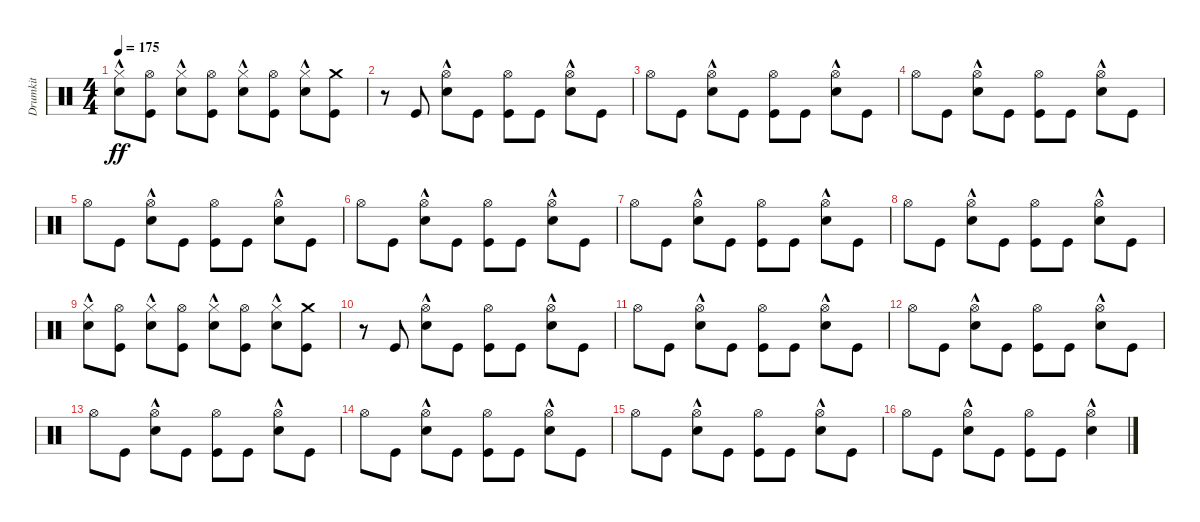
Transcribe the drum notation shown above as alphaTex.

\track ("Drumkit" "Drumkit") {instrument percussion}
\staff {score}
\articulation defaults
\ts (4 4)
\tempo 175
\clef neutral
\ks c
("Snare (hit) 2"{hac} "Hi-Hat (closed)").8{dy ff} ("Kick (hit)" "Hi-Hat (open)").8 ("Snare (hit) 2"{hac} "Hi-Hat (closed)").8 ("Kick (hit)" "Hi-Hat (open)").8 ("Snare (hit) 2"{hac} "Hi-Hat (closed)").8 ("Kick (hit)" "Hi-Hat (open)").8 ("Snare (hit) 2"{hac} "Hi-Hat (closed)").8 ("Kick (hit)" "Crash medium (hit)").8 |
r.8 "Kick (hit)".8 ("Snare (hit) 2"{hac} "Hi-Hat (open)").8 "Kick (hit)".8 ("Kick (hit)" "Hi-Hat (open)").8 "Kick (hit)".8 ("Snare (hit) 2"{hac} "Hi-Hat (open)").8 "Kick (hit)".8 |
"Hi-Hat (open)".8 "Kick (hit)".8 ("Snare (hit) 2"{hac} "Hi-Hat (open)").8 "Kick (hit)".8 ("Kick (hit)" "Hi-Hat (open)").8 "Kick (hit)".8 ("Snare (hit) 2"{hac} "Hi-Hat (open)").8 "Kick (hit)".8 |
"Hi-Hat (open)".8 "Kick (hit)".8 ("Snare (hit) 2"{hac} "Hi-Hat (open)").8 "Kick (hit)".8 ("Kick (hit)" "Hi-Hat (open)").8 "Kick (hit)".8 ("Snare (hit) 2"{hac} "Hi-Hat (open)").8 "Kick (hit)".8 |
"Hi-Hat (open)".8 "Kick (hit)".8 ("Snare (hit) 2"{hac} "Hi-Hat (open)").8 "Kick (hit)".8 ("Kick (hit)" "Hi-Hat (open)").8 "Kick (hit)".8 ("Snare (hit) 2"{hac} "Hi-Hat (open)").8 "Kick (hit)".8 |
"Hi-Hat (open)".8 "Kick (hit)".8 ("Snare (hit) 2"{hac} "Hi-Hat (open)").8 "Kick (hit)".8 ("Kick (hit)" "Hi-Hat (open)").8 "Kick (hit)".8 ("Snare (hit) 2"{hac} "Hi-Hat (open)").8 "Kick (hit)".8 |
"Hi-Hat (open)".8 "Kick (hit)".8 ("Snare (hit) 2"{hac} "Hi-Hat (open)").8 "Kick (hit)".8 ("Kick (hit)" "Hi-Hat (open)").8 "Kick (hit)".8 ("Snare (hit) 2"{hac} "Hi-Hat (open)").8 "Kick (hit)".8 |
"Hi-Hat (open)".8 "Kick (hit)".8 ("Snare (hit) 2"{hac} "Hi-Hat (open)").8 "Kick (hit)".8 ("Kick (hit)" "Hi-Hat (open)").8 "Kick (hit)".8 ("Snare (hit) 2"{hac} "Hi-Hat (open)").8 "Kick (hit)".8 |
("Snare (hit) 2"{hac} "Hi-Hat (closed)").8 ("Kick (hit)" "Hi-Hat (open)").8 ("Snare (hit) 2"{hac} "Hi-Hat (closed)").8 ("Kick (hit)" "Hi-Hat (open)").8 ("Snare (hit) 2"{hac} "Hi-Hat (closed)").8 ("Kick (hit)" "Hi-Hat (open)").8 ("Snare (hit) 2"{hac} "Hi-Hat (closed)").8 ("Kick (hit)" "Crash medium (hit)").8 |
r.8 "Kick (hit)".8 ("Snare (hit) 2"{hac} "Hi-Hat (open)").8 "Kick (hit)".8 ("Kick (hit)" "Hi-Hat (open)").8 "Kick (hit)".8 ("Snare (hit) 2"{hac} "Hi-Hat (open)").8 "Kick (hit)".8 |
"Hi-Hat (open)".8 "Kick (hit)".8 ("Snare (hit) 2"{hac} "Hi-Hat (open)").8 "Kick (hit)".8 ("Kick (hit)" "Hi-Hat (open)").8 "Kick (hit)".8 ("Snare (hit) 2"{hac} "Hi-Hat (open)").8 "Kick (hit)".8 |
"Hi-Hat (open)".8 "Kick (hit)".8 ("Snare (hit) 2"{hac} "Hi-Hat (open)").8 "Kick (hit)".8 ("Kick (hit)" "Hi-Hat (open)").8 "Kick (hit)".8 ("Snare (hit) 2"{hac} "Hi-Hat (open)").8 "Kick (hit)".8 |
"Hi-Hat (open)".8 "Kick (hit)".8 ("Snare (hit) 2"{hac} "Hi-Hat (open)").8 "Kick (hit)".8 ("Kick (hit)" "Hi-Hat (open)").8 "Kick (hit)".8 ("Snare (hit) 2"{hac} "Hi-Hat (open)").8 "Kick (hit)".8 |
"Hi-Hat (open)".8 "Kick (hit)".8 ("Snare (hit) 2"{hac} "Hi-Hat (open)").8 "Kick (hit)".8 ("Kick (hit)" "Hi-Hat (open)").8 "Kick (hit)".8 ("Snare (hit) 2"{hac} "Hi-Hat (open)").8 "Kick (hit)".8 |
"Hi-Hat (open)".8 "Kick (hit)".8 ("Snare (hit) 2"{hac} "Hi-Hat (open)").8 "Kick (hit)".8 ("Kick (hit)" "Hi-Hat (open)").8 "Kick (hit)".8 ("Snare (hit) 2"{hac} "Hi-Hat (open)").8 "Kick (hit)".8 |
"Hi-Hat (open)".8 "Kick (hit)".8 ("Snare (hit) 2"{hac} "Hi-Hat (open)").8 "Kick (hit)".8 ("Kick (hit)" "Hi-Hat (open)").8 "Kick (hit)".8 ("Snare (hit) 2"{hac} "Hi-Hat (open)").4
